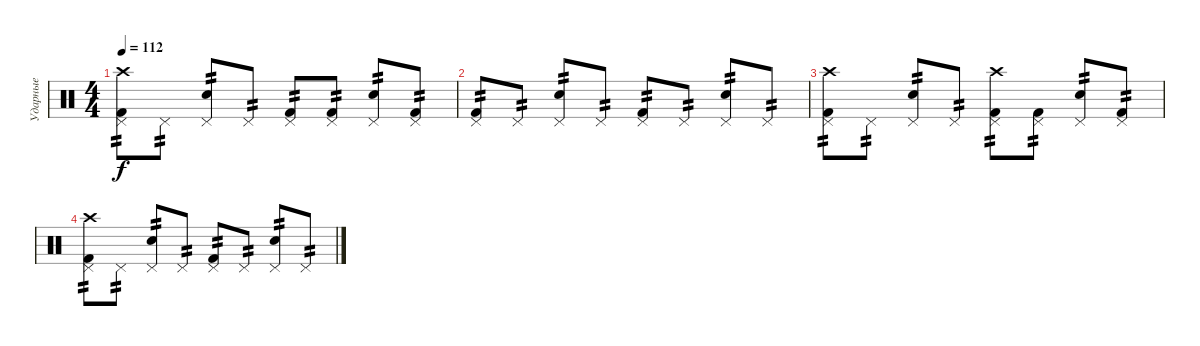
\track ("Ударные" "Ударные") {instrument percussion}
\staff {score}
\articulation defaults
\ts (4 4)
\tempo 112
\clef neutral
\ks c
("Kick (hit) 2" "Pedal Hi-Hat (hit)" "Crash high (hit)").8{tp 2 dy f} "Pedal Hi-Hat (hit)".8{tp 2} ("Snare (hit) 2" "Pedal Hi-Hat (hit)").8{tp 2} "Pedal Hi-Hat (hit)".8{tp 2} ("Kick (hit) 2" "Pedal Hi-Hat (hit)").8{tp 2} ("Kick (hit) 2" "Pedal Hi-Hat (hit)").8{tp 2} ("Snare (hit) 2" "Pedal Hi-Hat (hit)").8{tp 2} ("Kick (hit) 2" "Pedal Hi-Hat (hit)").8{tp 2} |
("Kick (hit) 2" "Pedal Hi-Hat (hit)").8{tp 2} "Pedal Hi-Hat (hit)".8{tp 2} ("Snare (hit) 2" "Pedal Hi-Hat (hit)").8{tp 2} "Pedal Hi-Hat (hit)".8{tp 2} ("Kick (hit) 2" "Pedal Hi-Hat (hit)").8{tp 2} "Pedal Hi-Hat (hit)".8{tp 2} ("Snare (hit) 2" "Pedal Hi-Hat (hit)").8{tp 2} "Pedal Hi-Hat (hit)".8{tp 2} |
("Kick (hit) 2" "Pedal Hi-Hat (hit)" "Crash high (hit)").8{tp 2} "Pedal Hi-Hat (hit)".8{tp 2} ("Snare (hit) 2" "Pedal Hi-Hat (hit)").8{tp 2} "Pedal Hi-Hat (hit)".8{tp 2} ("Kick (hit) 2" "Pedal Hi-Hat (hit)" "Crash high (hit)").8{tp 2} ("Kick (hit) 2" "Pedal Hi-Hat (hit)").8{tp 2} ("Snare (hit) 2" "Pedal Hi-Hat (hit)").8{tp 2} ("Kick (hit) 2" "Pedal Hi-Hat (hit)").8{tp 2} |
("Kick (hit) 2" "Pedal Hi-Hat (hit)" "Crash high (hit)").8{tp 2} "Pedal Hi-Hat (hit)".8{tp 2} ("Snare (hit) 2" "Pedal Hi-Hat (hit)").8{tp 2} "Pedal Hi-Hat (hit)".8{tp 2} ("Kick (hit) 2" "Pedal Hi-Hat (hit)").8{tp 2} "Pedal Hi-Hat (hit)".8{tp 2} ("Snare (hit) 2" "Pedal Hi-Hat (hit)").8{tp 2} "Pedal Hi-Hat (hit)".8{tp 2}
